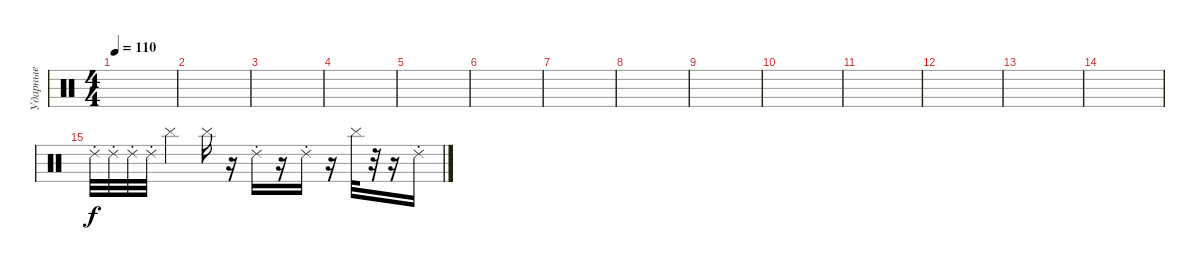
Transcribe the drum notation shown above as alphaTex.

\track ("Ударные" "Ударные") {instrument percussion}
\staff {score}
\articulation defaults
\ts (4 4)
\tempo 110
\clef neutral
\ks c
|
|
|
|
|
|
|
|
|
|
|
|
|
|
"Ride (choke) 2".32 "Ride (choke) 2".32 "Ride (choke) 2".32 "Ride (choke) 2".32 "Cymbal (hit)".4 "Cymbal (hit)".16 r.16 "Ride (choke) 2".16 r.16 "Ride (choke) 2".16 r.16 "Cymbal (hit)".32 r.32 r.16 "Ride (choke) 2".16
